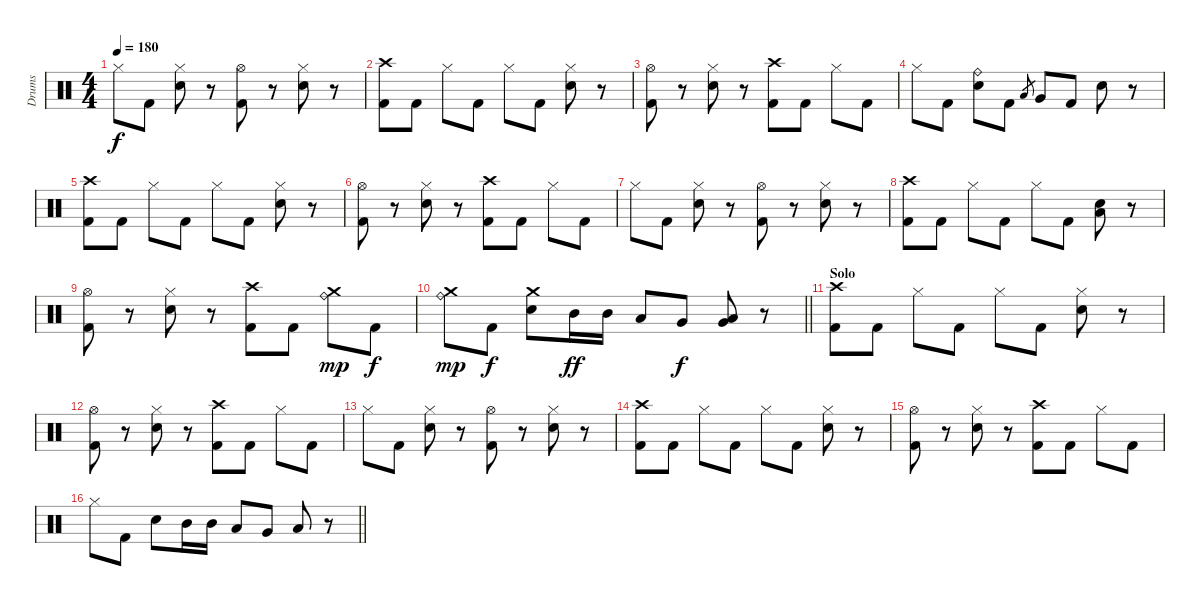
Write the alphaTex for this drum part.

\track ("Drums" "Drums") {instrument percussion}
\staff {score}
\articulation defaults
\ts (4 4)
\tempo 180
\clef neutral
\ks c "Hi-Hat (closed)".8{dy f} "Kick (hit) 2".8
("Electric Snare (hit)" "Hi-Hat (closed)").8 r.8 ("Kick (hit) 2" "Hi-Hat (open)").8 r.8 ("Electric Snare (hit)" "Hi-Hat (closed)").8 r.8 |
("Crash high (hit)" "Kick (hit) 2").8 "Kick (hit) 2".8 "Hi-Hat (closed)".8 "Kick (hit) 2".8 "Hi-Hat (closed)".8 "Kick (hit) 2".8 ("Electric Snare (hit)" "Hi-Hat (closed)").8 r.8 |
("Kick (hit) 2" "Hi-Hat (open)").8 r.8 ("Electric Snare (hit)" "Hi-Hat (closed)").8 r.8 ("Kick (hit) 2" "Crash high (hit)").8 "Kick (hit) 2".8 "Hi-Hat (closed)".8 "Kick (hit) 2".8 |
"Hi-Hat (closed)".8 "Kick (hit) 2".8 ("Electric Snare (hit)" "Ride (bell)").8 "Kick (hit) 2".8 "Low Floor Tom (hit)".8{gr} "Very Low Tom (hit)".8 "Kick (hit) 2".8 "Electric Snare (hit)".8 r.8 |
("Crash high (hit)" "Kick (hit) 2").8 "Kick (hit) 2".8 "Hi-Hat (closed)".8 "Kick (hit) 2".8 "Hi-Hat (closed)".8 "Kick (hit) 2".8 ("Electric Snare (hit)" "Hi-Hat (closed)").8 r.8 |
("Kick (hit) 2" "Hi-Hat (open)").8 r.8 ("Electric Snare (hit)" "Hi-Hat (closed)").8 r.8 ("Kick (hit) 2" "Crash high (hit)").8 "Kick (hit) 2".8 "Hi-Hat (closed)".8 "Kick (hit) 2".8 |
"Hi-Hat (closed)".8 "Kick (hit) 2".8 ("Electric Snare (hit)" "Hi-Hat (closed)").8 r.8 ("Kick (hit) 2" "Hi-Hat (open)").8 r.8 ("Electric Snare (hit)" "Hi-Hat (closed)").8 r.8 |
("Crash high (hit)" "Kick (hit) 2").8 "Kick (hit) 2".8 "Hi-Hat (closed)".8 "Kick (hit) 2".8 "Hi-Hat (closed)".8 "Kick (hit) 2".8 ("Electric Snare (hit)" "Low Tom (hit)").8 r.8 |
("Kick (hit) 2" "Hi-Hat (open)").8 r.8 ("Electric Snare (hit)" "Hi-Hat (closed)").8 r.8 ("Kick (hit) 2" "Crash high (hit)").8 "Kick (hit) 2".8 ("Crash medium (hit)" "Ride (bell)").8{dy mp} "Kick (hit) 2".8{dy f} |
\barLineRight lightlight
("Crash medium (hit)" "Ride (bell)").8{dy mp} "Kick (hit) 2".8{dy f} ("Electric Snare (hit)" "Crash medium (hit)").8 "Mid Tom (hit)".16{dy ff} "Mid Tom (hit)".16 "Low Tom (hit)".8 "Very Low Tom (hit)".8{dy f} ("Low Floor Tom (hit)" "Very Low Tom (hit)").8 r.8 |
\section ("" "Solo")
("Crash high (hit)" "Kick (hit) 2").8 "Kick (hit) 2".8 "Hi-Hat (closed)".8 "Kick (hit) 2".8 "Hi-Hat (closed)".8 "Kick (hit) 2".8 ("Electric Snare (hit)" "Hi-Hat (closed)").8 r.8 |
("Kick (hit) 2" "Hi-Hat (open)").8 r.8 ("Electric Snare (hit)" "Hi-Hat (closed)").8 r.8 ("Kick (hit) 2" "Crash high (hit)").8 "Kick (hit) 2".8 "Hi-Hat (closed)".8 "Kick (hit) 2".8 |
"Hi-Hat (closed)".8 "Kick (hit) 2".8 ("Electric Snare (hit)" "Hi-Hat (closed)").8 r.8 ("Kick (hit) 2" "Hi-Hat (open)").8 r.8 ("Electric Snare (hit)" "Hi-Hat (closed)").8 r.8 |
("Crash high (hit)" "Kick (hit) 2").8 "Kick (hit) 2".8 "Hi-Hat (closed)".8 "Kick (hit) 2".8 "Hi-Hat (closed)".8 "Kick (hit) 2".8 ("Electric Snare (hit)" "Hi-Hat (closed)").8 r.8 |
("Kick (hit) 2" "Hi-Hat (open)").8 r.8 ("Electric Snare (hit)" "Hi-Hat (closed)").8 r.8 ("Kick (hit) 2" "Crash high (hit)").8 "Kick (hit) 2".8 "Hi-Hat (closed)".8 "Kick (hit) 2".8 |
\barLineRight lightlight "Hi-Hat (closed)".8 "Kick (hit) 2".8 "Electric Snare (hit)".8 "Mid Tom (hit)".16 "Mid Tom (hit)".16 "Low Tom (hit)".8 "Very Low Tom (hit)".8 "Low Tom (hit)".8
r.8
